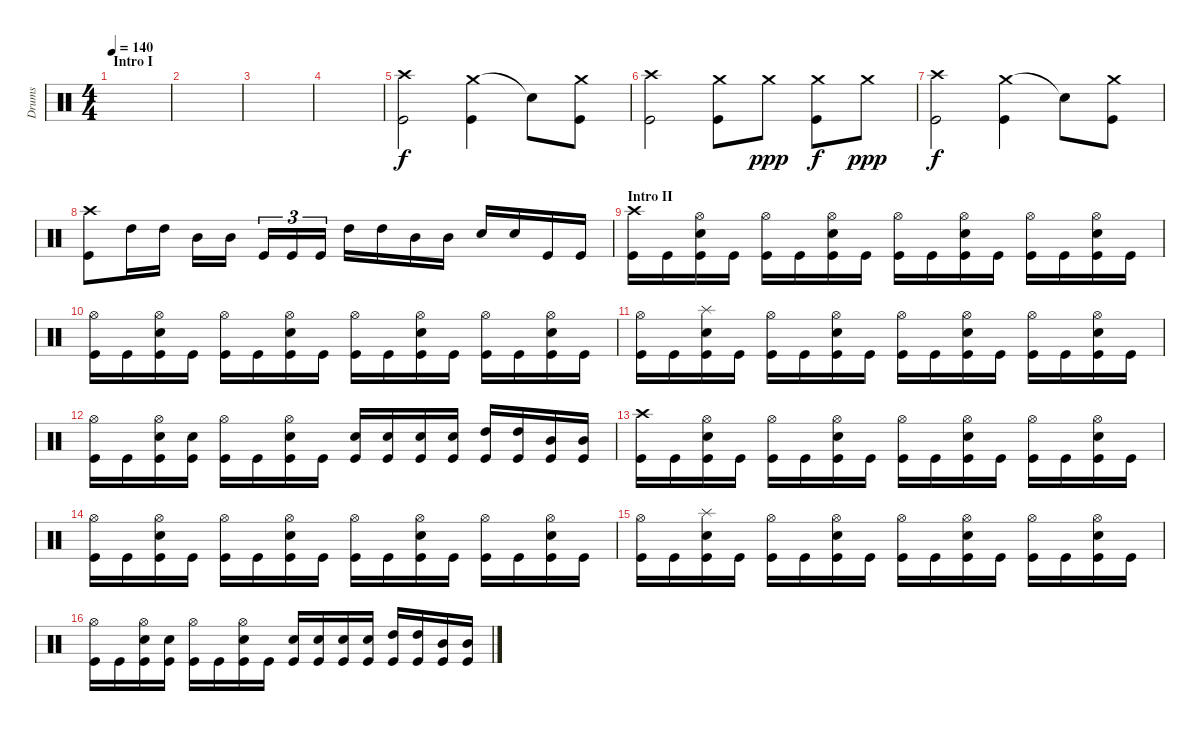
\track ("Drums" "Drums") {instrument percussion}
\staff {score}
\articulation defaults
\ts (4 4)
\section ("" "Intro I")
\tempo 140
\clef neutral
\ks c
|
|
|
|
("Crash high (hit)" "Kick (hit)").2 ("Crash medium (hit)" "Kick (hit)").4 "Snare (hit)"{t}.8 ("Crash medium (hit)" "Kick (hit)").8 |
("Crash high (hit)" "Kick (hit)").2 ("Crash medium (hit)" "Kick (hit)").8 "Crash medium (hit)".8{dy ppp} ("Crash medium (hit)" "Kick (hit)").8{dy f} "Crash medium (hit)".8{dy ppp} |
("Crash high (hit)" "Kick (hit)").2{dy f} ("Crash medium (hit)" "Kick (hit)").4 "Snare (hit)"{t}.8 ("Crash medium (hit)" "Kick (hit)").8 |
("Crash high (hit)" "Kick (hit)").8 "High Tom (hit)".16 "High Tom (hit)".16 "Mid Tom (hit)".16 "Mid Tom (hit)".16 "Kick (hit)".16{tu (3 2)} "Kick (hit)".16{tu (3 2)} "Kick (hit)".16{tu (3 2)} "High Tom (hit)".16 "High Tom (hit)".16 "Mid Tom (hit)".16 "Mid Tom (hit)".16 "Electric Snare (hit)".16 "Electric Snare (hit)".16 "Kick (hit)".16 "Kick (hit)".16 |
\section ("" "Intro II")
("Crash high (hit)" "Kick (hit)").16 "Kick (hit)".16 ("Hi-Hat (open)" "Electric Snare (hit)" "Kick (hit)").16 "Kick (hit)".16 ("Hi-Hat (open)" "Kick (hit)").16 "Kick (hit)".16 ("Hi-Hat (open)" "Electric Snare (hit)" "Kick (hit)").16 "Kick (hit)".16 ("Hi-Hat (open)" "Kick (hit)").16 "Kick (hit)".16 ("Hi-Hat (open)" "Electric Snare (hit)" "Kick (hit)").16 "Kick (hit)".16 ("Hi-Hat (open)" "Kick (hit)").16 "Kick (hit)".16 ("Hi-Hat (open)" "Electric Snare (hit)" "Kick (hit)").16 "Kick (hit)".16 |
("Hi-Hat (open)" "Kick (hit)").16 "Kick (hit)".16 ("Hi-Hat (open)" "Electric Snare (hit)" "Kick (hit)").16 "Kick (hit)".16 ("Hi-Hat (open)" "Kick (hit)").16 "Kick (hit)".16 ("Hi-Hat (open)" "Electric Snare (hit)" "Kick (hit)").16 "Kick (hit)".16 ("Hi-Hat (open)" "Kick (hit)").16 "Kick (hit)".16 ("Hi-Hat (open)" "Electric Snare (hit)" "Kick (hit)").16 "Kick (hit)".16 ("Hi-Hat (open)" "Kick (hit)").16 "Kick (hit)".16 ("Hi-Hat (open)" "Electric Snare (hit)" "Kick (hit)").16 "Kick (hit)".16 |
("Hi-Hat (open)" "Kick (hit)").16 "Kick (hit)".16 ("Splash (hit)" "Electric Snare (hit)" "Kick (hit)").16 "Kick (hit)".16 ("Hi-Hat (open)" "Kick (hit)").16 "Kick (hit)".16 ("Hi-Hat (open)" "Electric Snare (hit)" "Kick (hit)").16 "Kick (hit)".16 ("Hi-Hat (open)" "Kick (hit)").16 "Kick (hit)".16 ("Hi-Hat (open)" "Electric Snare (hit)" "Kick (hit)").16 "Kick (hit)".16 ("Hi-Hat (open)" "Kick (hit)").16 "Kick (hit)".16 ("Hi-Hat (open)" "Electric Snare (hit)" "Kick (hit)").16 "Kick (hit)".16 |
("Hi-Hat (open)" "Kick (hit)").16 "Kick (hit)".16 ("Hi-Hat (open)" "Electric Snare (hit)" "Kick (hit)").16 ("Electric Snare (hit)" "Kick (hit)").16 ("Hi-Hat (open)" "Kick (hit)").16 "Kick (hit)".16 ("Hi-Hat (open)" "Electric Snare (hit)" "Kick (hit)").16 "Kick (hit)".16 ("Electric Snare (hit)" "Kick (hit)").16 ("Electric Snare (hit)" "Kick (hit)").16 ("Electric Snare (hit)" "Kick (hit)").16 ("Electric Snare (hit)" "Kick (hit)").16 ("High Tom (hit)" "Kick (hit)").16 ("High Tom (hit)" "Kick (hit)").16 ("Mid Tom (hit)" "Kick (hit)").16 ("Mid Tom (hit)" "Kick (hit)").16 |
("Crash high (hit)" "Kick (hit)").16 "Kick (hit)".16 ("Hi-Hat (open)" "Electric Snare (hit)" "Kick (hit)").16 "Kick (hit)".16 ("Hi-Hat (open)" "Kick (hit)").16 "Kick (hit)".16 ("Hi-Hat (open)" "Electric Snare (hit)" "Kick (hit)").16 "Kick (hit)".16 ("Hi-Hat (open)" "Kick (hit)").16 "Kick (hit)".16 ("Hi-Hat (open)" "Electric Snare (hit)" "Kick (hit)").16 "Kick (hit)".16 ("Hi-Hat (open)" "Kick (hit)").16 "Kick (hit)".16 ("Hi-Hat (open)" "Electric Snare (hit)" "Kick (hit)").16 "Kick (hit)".16 |
("Hi-Hat (open)" "Kick (hit)").16 "Kick (hit)".16 ("Hi-Hat (open)" "Electric Snare (hit)" "Kick (hit)").16 "Kick (hit)".16 ("Hi-Hat (open)" "Kick (hit)").16 "Kick (hit)".16 ("Hi-Hat (open)" "Electric Snare (hit)" "Kick (hit)").16 "Kick (hit)".16 ("Hi-Hat (open)" "Kick (hit)").16 "Kick (hit)".16 ("Hi-Hat (open)" "Electric Snare (hit)" "Kick (hit)").16 "Kick (hit)".16 ("Hi-Hat (open)" "Kick (hit)").16 "Kick (hit)".16 ("Hi-Hat (open)" "Electric Snare (hit)" "Kick (hit)").16 "Kick (hit)".16 |
("Hi-Hat (open)" "Kick (hit)").16 "Kick (hit)".16 ("Splash (hit)" "Electric Snare (hit)" "Kick (hit)").16 "Kick (hit)".16 ("Hi-Hat (open)" "Kick (hit)").16 "Kick (hit)".16 ("Hi-Hat (open)" "Electric Snare (hit)" "Kick (hit)").16 "Kick (hit)".16 ("Hi-Hat (open)" "Kick (hit)").16 "Kick (hit)".16 ("Hi-Hat (open)" "Electric Snare (hit)" "Kick (hit)").16 "Kick (hit)".16 ("Hi-Hat (open)" "Kick (hit)").16 "Kick (hit)".16 ("Hi-Hat (open)" "Electric Snare (hit)" "Kick (hit)").16 "Kick (hit)".16 |
("Hi-Hat (open)" "Kick (hit)").16 "Kick (hit)".16 ("Hi-Hat (open)" "Electric Snare (hit)" "Kick (hit)").16 ("Electric Snare (hit)" "Kick (hit)").16 ("Hi-Hat (open)" "Kick (hit)").16 "Kick (hit)".16 ("Hi-Hat (open)" "Electric Snare (hit)" "Kick (hit)").16 "Kick (hit)".16 ("Electric Snare (hit)" "Kick (hit)").16 ("Electric Snare (hit)" "Kick (hit)").16 ("Electric Snare (hit)" "Kick (hit)").16 ("Electric Snare (hit)" "Kick (hit)").16 ("High Tom (hit)" "Kick (hit)").16 ("High Tom (hit)" "Kick (hit)").16 ("Mid Tom (hit)" "Kick (hit)").16 ("Mid Tom (hit)" "Kick (hit)").16
